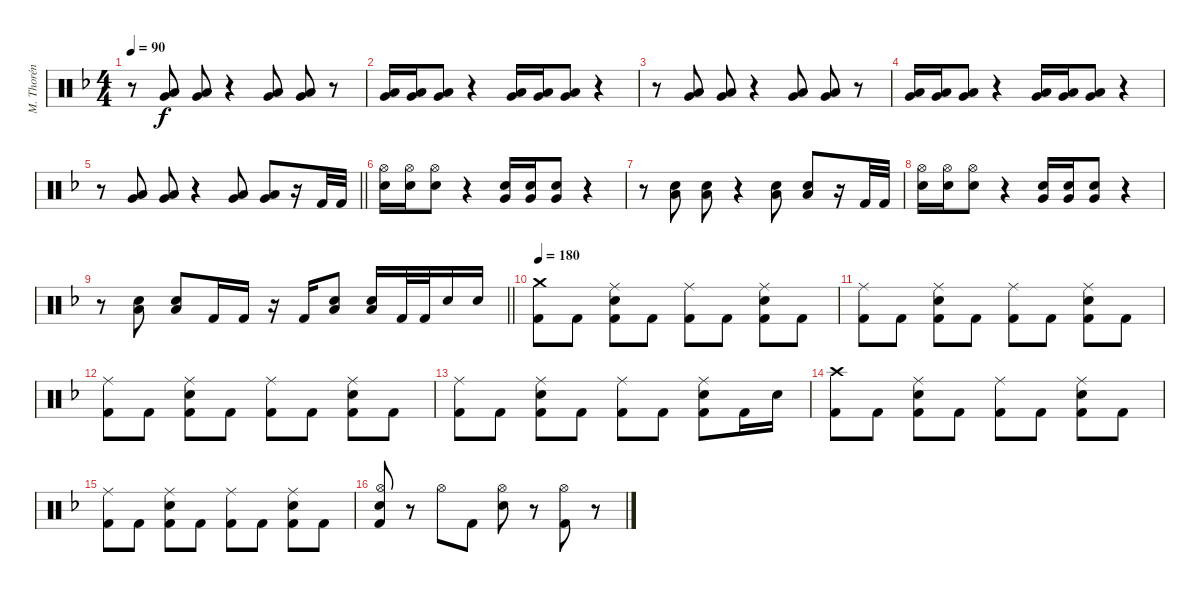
\track ("M. Thorén (Drums)" "M. Thorén ") {instrument percussion}
\staff {score}
\articulation defaults
\ts (4 4)
\tempo 90
\clef neutral
\ks dminor
r.8{dy f} ("Very Low Tom (hit)" "Low Floor Tom (hit)").8 ("Very Low Tom (hit)" "Low Floor Tom (hit)").8 r.4 ("Very Low Tom (hit)" "Low Floor Tom (hit)").8 ("Very Low Tom (hit)" "Low Floor Tom (hit)").8 r.8 |
("Very Low Tom (hit)" "Low Floor Tom (hit)").16 ("Very Low Tom (hit)" "Low Floor Tom (hit)").16 ("Very Low Tom (hit)" "Low Floor Tom (hit)").8 r.4 ("Very Low Tom (hit)" "Low Floor Tom (hit)").16 ("Very Low Tom (hit)" "Low Floor Tom (hit)").16 ("Very Low Tom (hit)" "Low Floor Tom (hit)").8 r.4 |
r.8 ("Very Low Tom (hit)" "Low Floor Tom (hit)").8 ("Very Low Tom (hit)" "Low Floor Tom (hit)").8 r.4 ("Very Low Tom (hit)" "Low Floor Tom (hit)").8 ("Very Low Tom (hit)" "Low Floor Tom (hit)").8 r.8 |
("Very Low Tom (hit)" "Low Floor Tom (hit)").16 ("Very Low Tom (hit)" "Low Floor Tom (hit)").16 ("Very Low Tom (hit)" "Low Floor Tom (hit)").8 r.4 ("Very Low Tom (hit)" "Low Floor Tom (hit)").16 ("Very Low Tom (hit)" "Low Floor Tom (hit)").16 ("Very Low Tom (hit)" "Low Floor Tom (hit)").8 r.4 |
\barLineRight lightlight
r.8 ("Very Low Tom (hit)" "Low Floor Tom (hit)").8 ("Very Low Tom (hit)" "Low Floor Tom (hit)").8 r.4 ("Very Low Tom (hit)" "Low Floor Tom (hit)").8 ("Very Low Tom (hit)" "Low Floor Tom (hit)").8 r.16 "Kick (hit) 2".32 "Kick (hit) 2".32 |
("Hi-Hat (open)" "Electric Snare (hit)").16 ("Hi-Hat (open)" "Electric Snare (hit)").16 ("Hi-Hat (open)" "Electric Snare (hit)").8 r.4 ("Very Low Tom (hit)" "Electric Snare (hit)").16 ("Very Low Tom (hit)" "Electric Snare (hit)").16 ("Very Low Tom (hit)" "Electric Snare (hit)").8 r.4 |
r.8 ("Low Floor Tom (hit)" "Electric Snare (hit)").8 ("Low Floor Tom (hit)" "Electric Snare (hit)").8 r.4 ("Low Floor Tom (hit)" "Electric Snare (hit)").8 ("Low Floor Tom (hit)" "Electric Snare (hit)").8 r.16 "Kick (hit) 2".32 "Kick (hit) 2".32 |
("Hi-Hat (open)" "Electric Snare (hit)").16 ("Hi-Hat (open)" "Electric Snare (hit)").16 ("Hi-Hat (open)" "Electric Snare (hit)").8 r.4 ("Very Low Tom (hit)" "Electric Snare (hit)").16 ("Very Low Tom (hit)" "Electric Snare (hit)").16 ("Very Low Tom (hit)" "Electric Snare (hit)").8 r.4 |
\barLineRight lightlight
r.8 ("Low Floor Tom (hit)" "Electric Snare (hit)").8 ("Low Floor Tom (hit)" "Electric Snare (hit)").8 "Kick (hit) 2".16 "Kick (hit) 2".16 r.16 "Kick (hit) 2".16 ("Low Floor Tom (hit)" "Electric Snare (hit)").8 ("Low Floor Tom (hit)" "Electric Snare (hit)").16 "Kick (hit) 2".32 "Kick (hit) 2".32 "Electric Snare (hit)".16 "Electric Snare (hit)".16 |
\tempo 180
("Crash medium (hit)" "Kick (hit) 2").8 "Kick (hit) 2".8 ("Ride (middle)" "Electric Snare (hit)" "Kick (hit) 2").8 "Kick (hit) 2".8 ("Ride (middle)" "Kick (hit) 2").8 "Kick (hit) 2".8 ("Ride (middle)" "Electric Snare (hit)" "Kick (hit) 2").8 "Kick (hit) 2".8 |
("Ride (middle)" "Kick (hit) 2").8 "Kick (hit) 2".8 ("Ride (middle)" "Electric Snare (hit)" "Kick (hit) 2").8 "Kick (hit) 2".8 ("Ride (middle)" "Kick (hit) 2").8 "Kick (hit) 2".8 ("Ride (middle)" "Electric Snare (hit)" "Kick (hit) 2").8 "Kick (hit) 2".8 |
("Ride (middle)" "Kick (hit) 2").8 "Kick (hit) 2".8 ("Ride (middle)" "Electric Snare (hit)" "Kick (hit) 2").8 "Kick (hit) 2".8 ("Ride (middle)" "Kick (hit) 2").8 "Kick (hit) 2".8 ("Ride (middle)" "Electric Snare (hit)" "Kick (hit) 2").8 "Kick (hit) 2".8 |
("Ride (middle)" "Kick (hit) 2").8 "Kick (hit) 2".8 ("Ride (middle)" "Electric Snare (hit)" "Kick (hit) 2").8 "Kick (hit) 2".8 ("Ride (middle)" "Kick (hit) 2").8 "Kick (hit) 2".8 ("Ride (middle)" "Electric Snare (hit)" "Kick (hit) 2").8 "Kick (hit) 2".16 "Electric Snare (hit)".16 |
("Crash high (hit)" "Kick (hit) 2").8 "Kick (hit) 2".8 ("Ride (middle)" "Electric Snare (hit)" "Kick (hit) 2").8 "Kick (hit) 2".8 ("Ride (middle)" "Kick (hit) 2").8 "Kick (hit) 2".8 ("Ride (middle)" "Electric Snare (hit)" "Kick (hit) 2").8 "Kick (hit) 2".8 |
("Ride (middle)" "Kick (hit) 2").8 "Kick (hit) 2".8 ("Ride (middle)" "Electric Snare (hit)" "Kick (hit) 2").8 "Kick (hit) 2".8 ("Ride (middle)" "Kick (hit) 2").8 "Kick (hit) 2".8 ("Ride (middle)" "Electric Snare (hit)" "Kick (hit) 2").8 "Kick (hit) 2".8 |
("Hi-Hat (open)" "Electric Snare (hit)" "Kick (hit) 2").8 r.8 "Hi-Hat (open)".8 "Kick (hit) 2".8 ("Hi-Hat (open)" "Electric Snare (hit)").8 r.8 ("Hi-Hat (open)" "Kick (hit) 2").8 r.8
